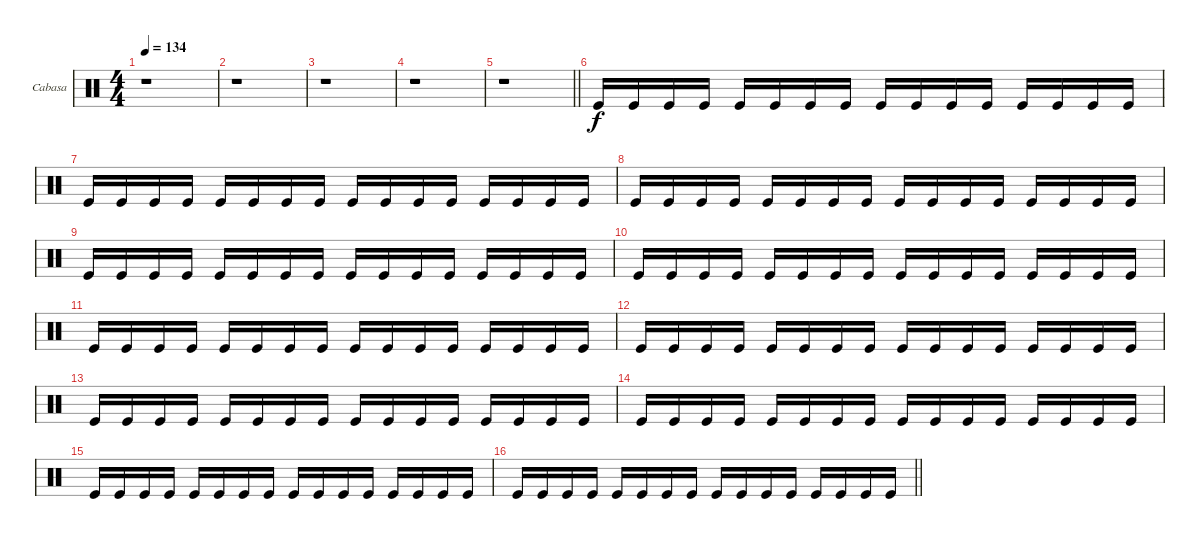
\bracketExtendMode groupsimilarinstruments
\firstSystemTrackNameOrientation horizontal
\otherSystemsTrackNameOrientation horizontal
\track ("Cabasa" "Cabasa") {instrument percussion}
\staff {score}
\articulation defaults
\ts (4 4)
\scale
0.206316
\tempo 134
\accidentals auto
\clef neutral
\ottava regular
\simile none
\ks c
r.1{dy f} |
\scale
0.185263 r.1 |
\scale
0.304211 r.1 |
\scale
0.304211 r.1 |
\scale
0.244613
\barLineRight lightlight
r.1 |
\scale
0.244613 "Kick (hit)".16 "Kick (hit)".16 "Kick (hit)".16 "Kick (hit)".16 "Kick (hit)".16 "Kick (hit)".16 "Kick (hit)".16 "Kick (hit)".16 "Kick (hit)".16 "Kick (hit)".16 "Kick (hit)".16 "Kick (hit)".16 "Kick (hit)".16 "Kick (hit)".16 "Kick (hit)".16 "Kick (hit)".16 |
\scale
0.26616 "Kick (hit)".16 "Kick (hit)".16 "Kick (hit)".16 "Kick (hit)".16 "Kick (hit)".16 "Kick (hit)".16 "Kick (hit)".16 "Kick (hit)".16 "Kick (hit)".16 "Kick (hit)".16 "Kick (hit)".16 "Kick (hit)".16 "Kick (hit)".16 "Kick (hit)".16 "Kick (hit)".16 "Kick (hit)".16 |
\scale
0.244613 "Kick (hit)".16 "Kick (hit)".16 "Kick (hit)".16 "Kick (hit)".16 "Kick (hit)".16 "Kick (hit)".16 "Kick (hit)".16 "Kick (hit)".16 "Kick (hit)".16 "Kick (hit)".16 "Kick (hit)".16 "Kick (hit)".16 "Kick (hit)".16 "Kick (hit)".16 "Kick (hit)".16 "Kick (hit)".16 |
\scale
0.220497 "Kick (hit)".16 "Kick (hit)".16 "Kick (hit)".16 "Kick (hit)".16 "Kick (hit)".16 "Kick (hit)".16 "Kick (hit)".16 "Kick (hit)".16 "Kick (hit)".16 "Kick (hit)".16 "Kick (hit)".16 "Kick (hit)".16 "Kick (hit)".16 "Kick (hit)".16 "Kick (hit)".16 "Kick (hit)".16 |
\scale
0.279503 "Kick (hit)".16 "Kick (hit)".16 "Kick (hit)".16 "Kick (hit)".16 "Kick (hit)".16 "Kick (hit)".16 "Kick (hit)".16 "Kick (hit)".16 "Kick (hit)".16 "Kick (hit)".16 "Kick (hit)".16 "Kick (hit)".16 "Kick (hit)".16 "Kick (hit)".16 "Kick (hit)".16 "Kick (hit)".16 |
\scale
0.220497 "Kick (hit)".16 "Kick (hit)".16 "Kick (hit)".16 "Kick (hit)".16 "Kick (hit)".16 "Kick (hit)".16 "Kick (hit)".16 "Kick (hit)".16 "Kick (hit)".16 "Kick (hit)".16 "Kick (hit)".16 "Kick (hit)".16 "Kick (hit)".16 "Kick (hit)".16 "Kick (hit)".16 "Kick (hit)".16 |
\scale
0.279503 "Kick (hit)".16 "Kick (hit)".16 "Kick (hit)".16 "Kick (hit)".16 "Kick (hit)".16 "Kick (hit)".16 "Kick (hit)".16 "Kick (hit)".16 "Kick (hit)".16 "Kick (hit)".16 "Kick (hit)".16 "Kick (hit)".16 "Kick (hit)".16 "Kick (hit)".16 "Kick (hit)".16 "Kick (hit)".16 |
\scale
0.208211 "Kick (hit)".16 "Kick (hit)".16 "Kick (hit)".16 "Kick (hit)".16 "Kick (hit)".16 "Kick (hit)".16 "Kick (hit)".16 "Kick (hit)".16 "Kick (hit)".16 "Kick (hit)".16 "Kick (hit)".16 "Kick (hit)".16 "Kick (hit)".16 "Kick (hit)".16 "Kick (hit)".16 "Kick (hit)".16 |
\scale
0.26393 "Kick (hit)".16 "Kick (hit)".16 "Kick (hit)".16 "Kick (hit)".16 "Kick (hit)".16 "Kick (hit)".16 "Kick (hit)".16 "Kick (hit)".16 "Kick (hit)".16 "Kick (hit)".16 "Kick (hit)".16 "Kick (hit)".16 "Kick (hit)".16 "Kick (hit)".16 "Kick (hit)".16 "Kick (hit)".16 |
\scale
0.26393 "Kick (hit)".16 "Kick (hit)".16 "Kick (hit)".16 "Kick (hit)".16 "Kick (hit)".16 "Kick (hit)".16 "Kick (hit)".16 "Kick (hit)".16 "Kick (hit)".16 "Kick (hit)".16 "Kick (hit)".16 "Kick (hit)".16 "Kick (hit)".16 "Kick (hit)".16 "Kick (hit)".16 "Kick (hit)".16 |
\scale
0.26393
\barLineRight lightlight "Kick (hit)".16 "Kick (hit)".16 "Kick (hit)".16 "Kick (hit)".16 "Kick (hit)".16 "Kick (hit)".16 "Kick (hit)".16 "Kick (hit)".16 "Kick (hit)".16 "Kick (hit)".16 "Kick (hit)".16 "Kick (hit)".16 "Kick (hit)".16 "Kick (hit)".16 "Kick (hit)".16 "Kick (hit)".16
